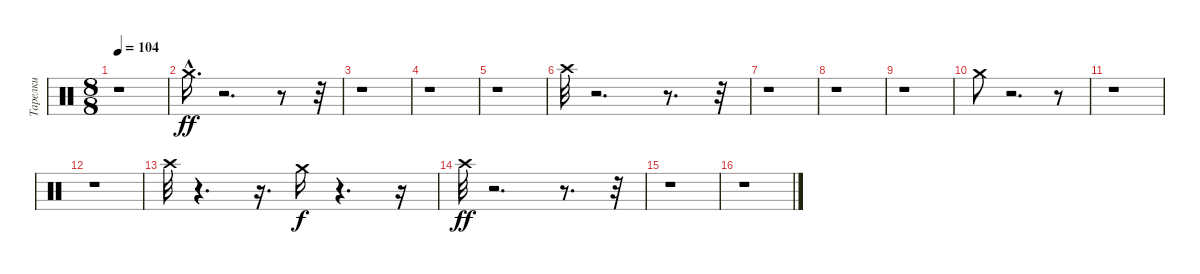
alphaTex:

\track ("Тарелки" "Тарелки") {instrument percussion}
\staff {score}
\articulation defaults
\ts (8 8)
\tempo 104
\clef neutral
\ks c
r.1{dy ff} |
"Crash medium (hit)"{hac}.16{d} r.2{d} r.8 r.32 |
r.1 |
r.1 |
r.1 |
"Crash high (hit)".32 r.2{d} r.8{d} r.32 |
r.1 |
r.1 |
r.1 |
"Crash medium (hit)".8 r.2{d} r.8 |
r.1 |
r.1 |
"Crash high (hit)".32 r.4{d} r.16{d} "Crash medium (hit)".16{dy f} r.4{d} r.16 |
"Crash high (hit)".32{dy ff} r.2{d} r.8{d} r.32 |
r.1 |
r.1
